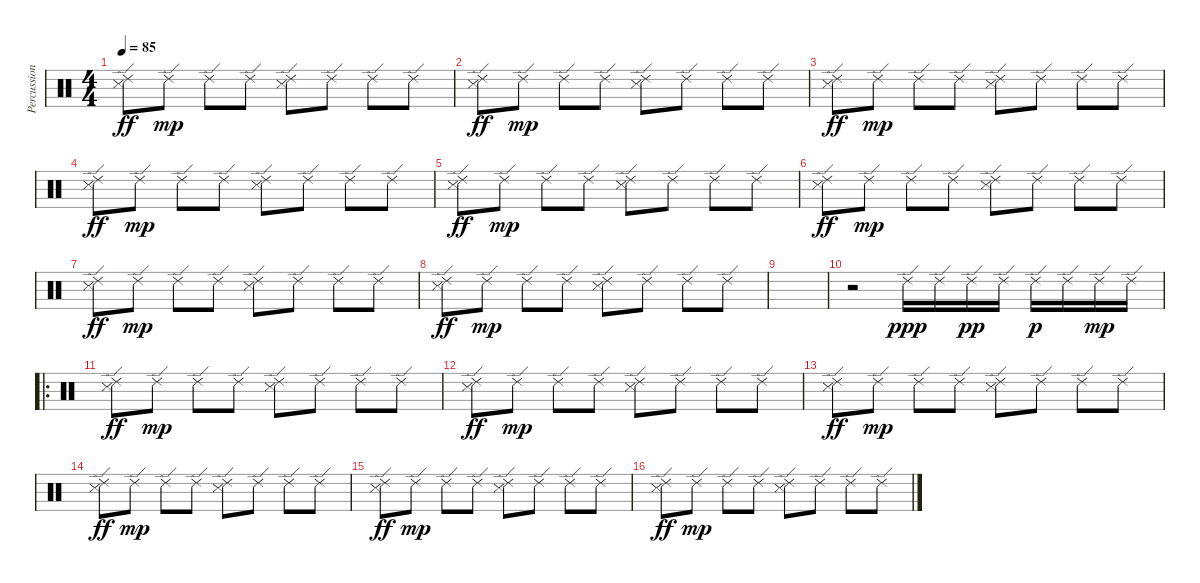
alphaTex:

\track ("Percussions (Moe Tucker)" "Percussion") {instrument percussion}
\staff {score}
\articulation defaults
\ts (4 4)
\tempo 85
\clef neutral
\ks c
("Ride (edge) 2" "Snare (side stick) 3").8{dy ff} "Ride (edge) 2".8{dy mp} "Ride (edge) 2".8 "Ride (edge) 2".8 ("Ride (edge) 2" "Snare (side stick) 3").8 "Ride (edge) 2".8 "Ride (edge) 2".8 "Ride (edge) 2".8 |
("Ride (edge) 2" "Snare (side stick) 3").8{dy ff} "Ride (edge) 2".8{dy mp} "Ride (edge) 2".8 "Ride (edge) 2".8 ("Ride (edge) 2" "Snare (side stick) 3").8 "Ride (edge) 2".8 "Ride (edge) 2".8 "Ride (edge) 2".8 |
("Ride (edge) 2" "Snare (side stick) 3").8{dy ff} "Ride (edge) 2".8{dy mp} "Ride (edge) 2".8 "Ride (edge) 2".8 ("Ride (edge) 2" "Snare (side stick) 3").8 "Ride (edge) 2".8 "Ride (edge) 2".8 "Ride (edge) 2".8 |
("Ride (edge) 2" "Snare (side stick) 3").8{dy ff} "Ride (edge) 2".8{dy mp} "Ride (edge) 2".8 "Ride (edge) 2".8 ("Ride (edge) 2" "Snare (side stick) 3").8 "Ride (edge) 2".8 "Ride (edge) 2".8 "Ride (edge) 2".8 |
("Ride (edge) 2" "Snare (side stick) 3").8{dy ff} "Ride (edge) 2".8{dy mp} "Ride (edge) 2".8 "Ride (edge) 2".8 ("Ride (edge) 2" "Snare (side stick) 3").8 "Ride (edge) 2".8 "Ride (edge) 2".8 "Ride (edge) 2".8 |
("Ride (edge) 2" "Snare (side stick) 3").8{dy ff} "Ride (edge) 2".8{dy mp} "Ride (edge) 2".8 "Ride (edge) 2".8 ("Ride (edge) 2" "Snare (side stick) 3").8 "Ride (edge) 2".8 "Ride (edge) 2".8 "Ride (edge) 2".8 |
("Ride (edge) 2" "Snare (side stick) 3").8{dy ff} "Ride (edge) 2".8{dy mp} "Ride (edge) 2".8 "Ride (edge) 2".8 ("Ride (edge) 2" "Snare (side stick) 3").8 "Ride (edge) 2".8 "Ride (edge) 2".8 "Ride (edge) 2".8 |
("Ride (edge) 2" "Snare (side stick) 3").8{dy ff} "Ride (edge) 2".8{dy mp} "Ride (edge) 2".8 "Ride (edge) 2".8 ("Ride (edge) 2" "Snare (side stick) 3").8 "Ride (edge) 2".8 "Ride (edge) 2".8 "Ride (edge) 2".8 |
|
r.2 "Ride (edge) 2".16{dy ppp} "Ride (edge) 2".16 "Ride (edge) 2".16{dy pp} "Ride (edge) 2".16 "Ride (edge) 2".16{dy p} "Ride (edge) 2".16 "Ride (edge) 2".16{dy mp} "Ride (edge) 2".16 |
\ro
("Ride (edge) 2" "Snare (side stick) 3").8{dy ff} "Ride (edge) 2".8{dy mp} "Ride (edge) 2".8 "Ride (edge) 2".8 ("Ride (edge) 2" "Snare (side stick) 3").8 "Ride (edge) 2".8 "Ride (edge) 2".8 "Ride (edge) 2".8 |
("Ride (edge) 2" "Snare (side stick) 3").8{dy ff} "Ride (edge) 2".8{dy mp} "Ride (edge) 2".8 "Ride (edge) 2".8 ("Ride (edge) 2" "Snare (side stick) 3").8 "Ride (edge) 2".8 "Ride (edge) 2".8 "Ride (edge) 2".8 |
("Ride (edge) 2" "Snare (side stick) 3").8{dy ff} "Ride (edge) 2".8{dy mp} "Ride (edge) 2".8 "Ride (edge) 2".8 ("Ride (edge) 2" "Snare (side stick) 3").8 "Ride (edge) 2".8 "Ride (edge) 2".8 "Ride (edge) 2".8 |
("Ride (edge) 2" "Snare (side stick) 3").8{dy ff} "Ride (edge) 2".8{dy mp} "Ride (edge) 2".8 "Ride (edge) 2".8 ("Ride (edge) 2" "Snare (side stick) 3").8 "Ride (edge) 2".8 "Ride (edge) 2".8 "Ride (edge) 2".8 |
("Ride (edge) 2" "Snare (side stick) 3").8{dy ff} "Ride (edge) 2".8{dy mp} "Ride (edge) 2".8 "Ride (edge) 2".8 ("Ride (edge) 2" "Snare (side stick) 3").8 "Ride (edge) 2".8 "Ride (edge) 2".8 "Ride (edge) 2".8 |
("Ride (edge) 2" "Snare (side stick) 3").8{dy ff} "Ride (edge) 2".8{dy mp} "Ride (edge) 2".8 "Ride (edge) 2".8 ("Ride (edge) 2" "Snare (side stick) 3").8 "Ride (edge) 2".8 "Ride (edge) 2".8 "Ride (edge) 2".8
